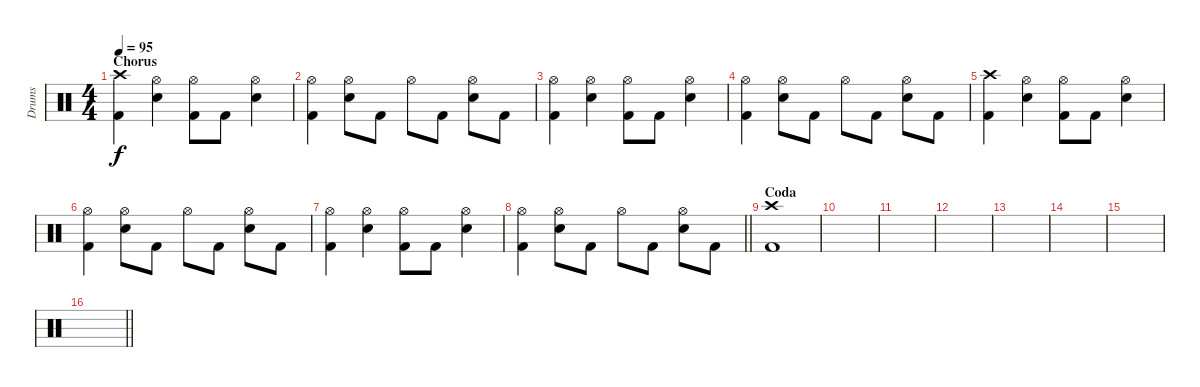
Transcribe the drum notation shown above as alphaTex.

\track ("Drums" "Drums") {instrument percussion}
\staff {score}
\articulation defaults
\ts (4 4)
\section ("" "Chorus ")
\tempo 95
\clef neutral
\ks c
("Crash high (hit)" "Kick (hit) 2").4{dy f} ("Hi-Hat (open)" "Electric Snare (hit)").4 ("Hi-Hat (open)" "Kick (hit) 2").8 "Kick (hit) 2".8 ("Hi-Hat (open)" "Electric Snare (hit)").4 |
("Hi-Hat (open)" "Kick (hit) 2").4 ("Hi-Hat (open)" "Electric Snare (hit)").8 "Kick (hit) 2".8 "Hi-Hat (open)".8 "Kick (hit) 2".8 ("Hi-Hat (open)" "Electric Snare (hit)").8 "Kick (hit) 2".8 |
("Hi-Hat (open)" "Kick (hit) 2").4 ("Hi-Hat (open)" "Electric Snare (hit)").4 ("Hi-Hat (open)" "Kick (hit) 2").8 "Kick (hit) 2".8 ("Hi-Hat (open)" "Electric Snare (hit)").4 |
("Hi-Hat (open)" "Kick (hit) 2").4 ("Hi-Hat (open)" "Electric Snare (hit)").8 "Kick (hit) 2".8 "Hi-Hat (open)".8 "Kick (hit) 2".8 ("Hi-Hat (open)" "Electric Snare (hit)").8 "Kick (hit) 2".8 |
("Crash high (hit)" "Kick (hit) 2").4 ("Hi-Hat (open)" "Electric Snare (hit)").4 ("Hi-Hat (open)" "Kick (hit) 2").8 "Kick (hit) 2".8 ("Hi-Hat (open)" "Electric Snare (hit)").4 |
("Hi-Hat (open)" "Kick (hit) 2").4 ("Hi-Hat (open)" "Electric Snare (hit)").8 "Kick (hit) 2".8 "Hi-Hat (open)".8 "Kick (hit) 2".8 ("Hi-Hat (open)" "Electric Snare (hit)").8 "Kick (hit) 2".8 |
("Hi-Hat (open)" "Kick (hit) 2").4 ("Hi-Hat (open)" "Electric Snare (hit)").4 ("Hi-Hat (open)" "Kick (hit) 2").8 "Kick (hit) 2".8 ("Hi-Hat (open)" "Electric Snare (hit)").4 |
\barLineRight lightlight
("Hi-Hat (open)" "Kick (hit) 2").4 ("Hi-Hat (open)" "Electric Snare (hit)").8 "Kick (hit) 2".8 "Hi-Hat (open)".8 "Kick (hit) 2".8 ("Hi-Hat (open)" "Electric Snare (hit)").8 "Kick (hit) 2".8 |
\section ("" "Coda")
("Crash high (hit)" "Kick (hit) 2").1 |
|
|
|
|
|
|
\barLineRight lightlight
